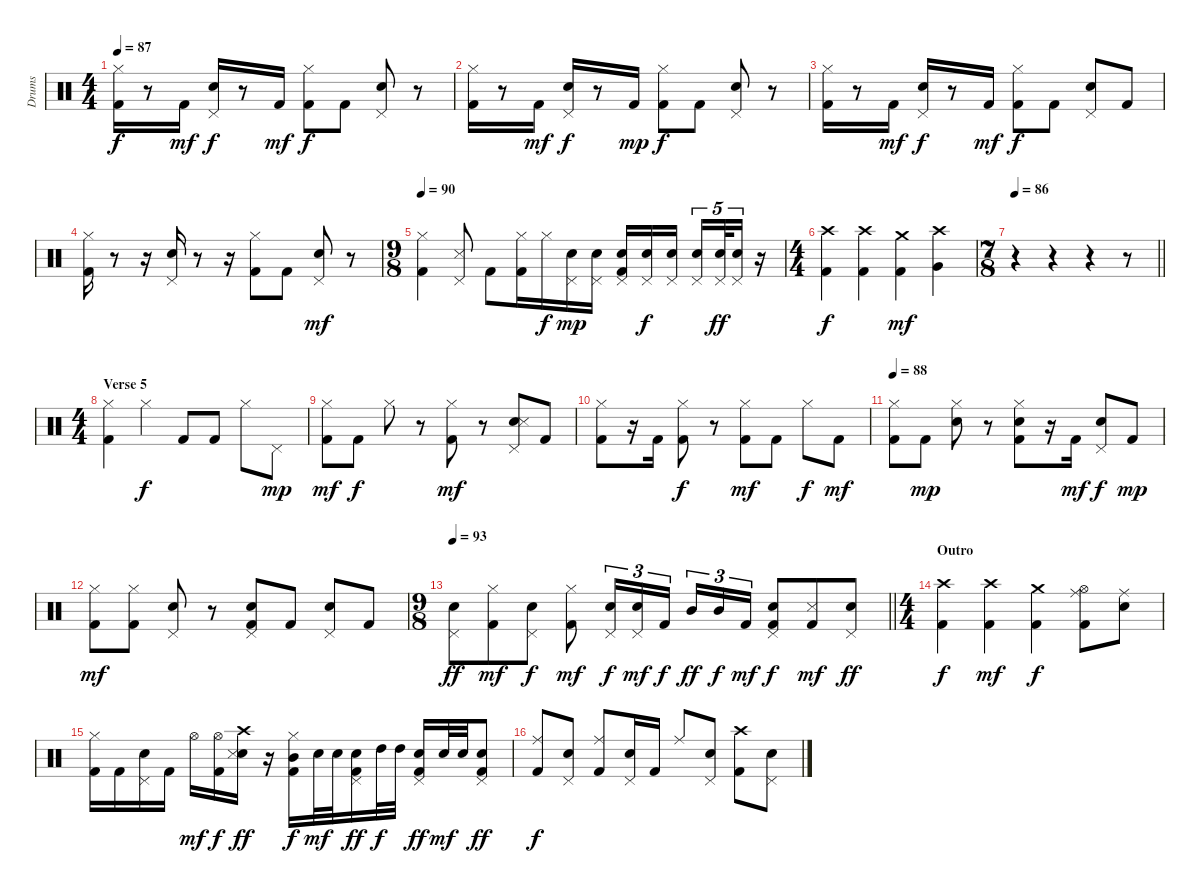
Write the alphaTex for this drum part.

\track ("Drums" "Drums") {instrument percussion}
\staff {score}
\articulation defaults
\ts (4 4)
\tempo 87
\clef neutral
\ks c
("Hi-Hat (closed)" "Kick (hit) 2").16{dy f} r.8 "Kick (hit) 2".16{dy mf} ("Pedal Hi-Hat (hit)" "Snare (hit) 2").16{dy f} r.8 "Kick (hit) 2".16{dy mf} ("Hi-Hat (closed)" "Kick (hit) 2").8{dy f} "Kick (hit) 2".8 ("Pedal Hi-Hat (hit)" "Snare (hit) 2").8 r.8 |
("Hi-Hat (closed)" "Kick (hit) 2").16 r.8 "Kick (hit) 2".16{dy mf} ("Pedal Hi-Hat (hit)" "Snare (hit) 2").16{dy f} r.8 "Kick (hit) 2".16{dy mp} ("Hi-Hat (closed)" "Kick (hit) 2").8{dy f} "Kick (hit) 2".8 ("Pedal Hi-Hat (hit)" "Snare (hit) 2").8 r.8 |
("Hi-Hat (closed)" "Kick (hit) 2").16 r.8 "Kick (hit) 2".16{dy mf} ("Pedal Hi-Hat (hit)" "Snare (hit) 2").16{dy f} r.8 "Kick (hit) 2".16{dy mf} ("Hi-Hat (closed)" "Kick (hit) 2").8{dy f} "Kick (hit) 2".8 ("Pedal Hi-Hat (hit)" "Snare (hit) 2").8 "Kick (hit) 2".8 |
("Hi-Hat (closed)" "Kick (hit) 2").16 r.8 r.16 ("Pedal Hi-Hat (hit)" "Snare (hit) 2").16 r.8 r.16 ("Hi-Hat (closed)" "Kick (hit) 2").8 "Kick (hit) 2".8 ("Pedal Hi-Hat (hit)" "Snare (hit) 2").8{dy mf} r.8 |
\ts (9 8)
\tempo 90
("Hi-Hat (closed)" "Kick (hit) 2").4 ("Pedal Hi-Hat (hit)" "Snare (side stick) 3").8 "Kick (hit) 2".8 ("Hi-Hat (closed)" "Kick (hit) 2").16 "Hi-Hat (closed)".16{dy f} ("Pedal Hi-Hat (hit)" "Snare (hit) 2").16{dy mp} ("Pedal Hi-Hat (hit)" "Snare (hit) 2").16 ("Pedal Hi-Hat (hit)" "Snare (hit) 2" "Kick (hit) 2").16 ("Pedal Hi-Hat (hit)" "Snare (hit) 2").16{dy f} ("Pedal Hi-Hat (hit)" "Snare (hit) 2").16{beam splitsecondary} ("Pedal Hi-Hat (hit)" "Snare (hit) 2").16{tu (5 4)} ("Pedal Hi-Hat (hit)" "Snare (hit) 2").32{tu (5 4) dy ff} ("Pedal Hi-Hat (hit)" "Snare (hit) 2").16{tu (5 4)} r.16 |
\ts (4 4)
("Crash high (hit)" "Kick (hit) 2").4{dy f} ("Crash high (hit)" "Kick (hit) 2").4 ("Crash medium (hit)" "Kick (hit) 2").4{dy mf} ("Crash high (hit)" "Very Low Tom (hit)").4 |
\ts (7 8)
\tempo 86
\barLineRight lightlight
r.4 r.4 r.4 r.8 |
\ts (4 4)
\section ("" "Verse 5")
("Hi-Hat (closed)" "Kick (hit) 2").4 "Hi-Hat (closed)".4{dy f} "Kick (hit) 2".8 "Kick (hit) 2".8 "Hi-Hat (closed)".8 "Pedal Hi-Hat (hit)".8{dy mp} |
("Hi-Hat (closed)" "Kick (hit) 2").8{dy mf} "Kick (hit) 2".8{dy f} "Hi-Hat (closed)".8 r.8 ("Hi-Hat (closed)" "Kick (hit) 2").8{dy mf} r.8 ("Pedal Hi-Hat (hit)" "Snare (hit) 2" "Snare (side stick) 3").8 "Kick (hit) 2".8 |
("Hi-Hat (closed)" "Kick (hit) 2").8 r.16 "Kick (hit) 2".16 ("Hi-Hat (closed)" "Kick (hit) 2").8{dy f} r.8 ("Hi-Hat (closed)" "Kick (hit) 2").8{dy mf} "Kick (hit) 2".8 "Hi-Hat (closed)".8{dy f} "Kick (hit) 2".8{dy mf} |
\tempo 88
("Hi-Hat (closed)" "Kick (hit) 2").8 "Kick (hit) 2".8{dy mp} ("Hi-Hat (closed)" "Snare (hit) 2").8 r.8 ("Hi-Hat (closed)" "Snare (hit) 2" "Kick (hit) 2").8 r.16 "Kick (hit) 2".16{dy mf} ("Pedal Hi-Hat (hit)" "Snare (hit) 2").8{dy f} "Kick (hit) 2".8{dy mp} |
("Hi-Hat (closed)" "Kick (hit) 2").8{dy mf} ("Hi-Hat (closed)" "Kick (hit) 2").8 ("Pedal Hi-Hat (hit)" "Snare (hit) 2").8 r.8 ("Pedal Hi-Hat (hit)" "Snare (hit) 2" "Kick (hit) 2").8 "Kick (hit) 2".8 ("Pedal Hi-Hat (hit)" "Snare (hit) 2").8 "Kick (hit) 2".8 |
\ts (9 8)
\tempo 93
\barLineRight lightlight
("Pedal Hi-Hat (hit)" "Snare (hit) 2").8{dy ff} ("Hi-Hat (closed)" "Kick (hit) 2").8{dy mf} ("Pedal Hi-Hat (hit)" "Snare (hit) 2").8{dy f} ("Hi-Hat (closed)" "Kick (hit) 2").8{dy mf} ("Pedal Hi-Hat (hit)" "Snare (hit) 2").16{tu (3 2) dy f} ("Pedal Hi-Hat (hit)" "Snare (hit) 2").16{tu (3 2) dy mf} "Kick (hit) 2".16{tu (3 2) dy f beam splitsecondary} "Mid Tom (hit)".16{tu (3 2) dy ff} "Mid Tom (hit)".16{tu (3 2) dy f} "Kick (hit) 2".16{tu (3 2) dy mf} ("Pedal Hi-Hat (hit)" "Snare (hit) 2" "Kick (hit) 2").8{dy f} ("Snare (side stick) 3" "Kick (hit) 2").8{dy mf} ("Pedal Hi-Hat (hit)" "Snare (hit) 2").8{dy ff} |
\ts (4 4)
\section ("" "Outro")
("Crash high (hit)" "Kick (hit) 2").4{dy f} ("Crash high (hit)" "Kick (hit) 2").4{dy mf} ("Crash medium (hit)" "Kick (hit) 2").4{dy f} ("Ride (middle)" "Hi-Hat (open)" "Kick (hit) 2").8 ("Ride (middle)" "Snare (hit) 2").8 |
("Hi-Hat (closed)" "Kick (hit) 2").16 "Kick (hit) 2".16 ("Pedal Hi-Hat (hit)" "Snare (hit) 2").16 "Kick (hit) 2".16 "Hi-Hat (open)".16{dy mf} ("Hi-Hat (open)" "Kick (hit) 2").16{dy f} ("Crash high (hit)" "Snare (hit) 2" "Snare (side stick) 3").16{dy ff} r.16 ("Hi-Hat (closed)" "Mid Tom (hit)" "Kick (hit) 2").16{dy f} "Snare (hit) 2".32{dy mf} "Snare (hit) 2".32 ("Pedal Hi-Hat (hit)" "Snare (hit) 2" "Kick (hit) 2").16{dy ff} "High Tom (hit)".32{dy f} "High Tom (hit)".32 ("Pedal Hi-Hat (hit)" "Snare (hit) 2" "Kick (hit) 2").16{dy ff} "Snare (hit) 2".32{dy mf} "Snare (hit) 2".32 ("Pedal Hi-Hat (hit)" "Snare (hit) 2" "Kick (hit) 2").8{dy ff} |
("Ride (middle)" "Kick (hit) 2").8{dy f} ("Pedal Hi-Hat (hit)" "Snare (hit) 2").8 ("Ride (middle)" "Kick (hit) 2").8 ("Pedal Hi-Hat (hit)" "Snare (hit) 2").16 "Kick (hit) 2".16 "Ride (middle)".8 ("Pedal Hi-Hat (hit)" "Snare (hit) 2").8 ("Crash high (hit)" "Kick (hit) 2").8 ("Pedal Hi-Hat (hit)" "Snare (hit) 2").8
